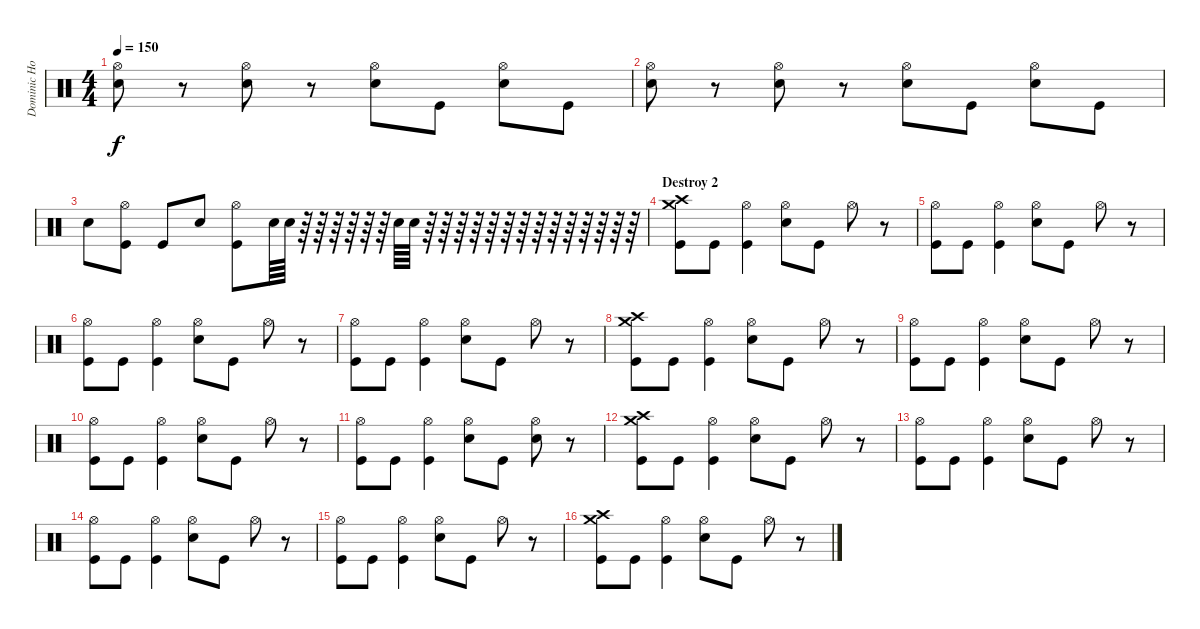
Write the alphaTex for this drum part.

\track ("Dominic Howard" "Dominic Ho") {instrument percussion}
\staff {score}
\articulation defaults
\ts (4 4)
\tempo 150
\clef neutral
\ks c
("Hi-Hat (open)" "Snare (hit) 2").8{dy f} r.8 ("Hi-Hat (open)" "Snare (hit) 2").8 r.8 ("Hi-Hat (open)" "Snare (hit) 2").8 "Kick (hit)".8 ("Hi-Hat (open)" "Snare (hit) 2").8 "Kick (hit)".8 |
("Hi-Hat (open)" "Snare (hit) 2").8 r.8 ("Hi-Hat (open)" "Snare (hit) 2").8 r.8 ("Hi-Hat (open)" "Snare (hit) 2").8 "Kick (hit)".8 ("Hi-Hat (open)" "Snare (hit) 2").8 "Kick (hit)".8 |
"Snare (hit) 2".8 ("Hi-Hat (open)" "Kick (hit)").8 "Kick (hit)".8 "Snare (hit) 2".8 ("Hi-Hat (open)" "Kick (hit)").8 "Snare (hit) 2".64 "Snare (hit) 2".64 r.64 r.64 r.64 r.64 r.64 r.64 "Snare (hit) 2".64 "Snare (hit) 2".64 r.64 r.64 r.64 r.64 r.64 r.64 r.64 r.64 r.64 r.64 r.64 r.64 r.64 r.64 |
\section ("" "Destroy 2")
("Crash high (hit)" "Crash medium (hit)" "Kick (hit)").8 "Kick (hit)".8 ("Hi-Hat (open)" "Kick (hit)").4 ("Hi-Hat (open)" "Snare (hit) 2").8 "Kick (hit)".8 "Hi-Hat (open)".8 r.8 |
("Hi-Hat (open)" "Kick (hit)").8 "Kick (hit)".8 ("Hi-Hat (open)" "Kick (hit)").4 ("Hi-Hat (open)" "Snare (hit) 2").8 "Kick (hit)".8 "Hi-Hat (open)".8 r.8 |
("Hi-Hat (open)" "Kick (hit)").8 "Kick (hit)".8 ("Hi-Hat (open)" "Kick (hit)").4 ("Hi-Hat (open)" "Snare (hit) 2").8 "Kick (hit)".8 "Hi-Hat (open)".8 r.8 |
("Hi-Hat (open)" "Kick (hit)").8 "Kick (hit)".8 ("Hi-Hat (open)" "Kick (hit)").4 ("Hi-Hat (open)" "Snare (hit) 2").8 "Kick (hit)".8 "Hi-Hat (open)".8 r.8 |
("Crash high (hit)" "Crash medium (hit)" "Kick (hit)").8 "Kick (hit)".8 ("Hi-Hat (open)" "Kick (hit)").4 ("Hi-Hat (open)" "Snare (hit) 2").8 "Kick (hit)".8 "Hi-Hat (open)".8 r.8 |
("Hi-Hat (open)" "Kick (hit)").8 "Kick (hit)".8 ("Hi-Hat (open)" "Kick (hit)").4 ("Hi-Hat (open)" "Snare (hit) 2").8 "Kick (hit)".8 "Hi-Hat (open)".8 r.8 |
("Hi-Hat (open)" "Kick (hit)").8 "Kick (hit)".8 ("Hi-Hat (open)" "Kick (hit)").4 ("Hi-Hat (open)" "Snare (hit) 2").8 "Kick (hit)".8 "Hi-Hat (open)".8 r.8 |
("Hi-Hat (open)" "Kick (hit)").8 "Kick (hit)".8 ("Hi-Hat (open)" "Kick (hit)").4 ("Hi-Hat (open)" "Snare (hit) 2").8 "Kick (hit)".8 ("Hi-Hat (open)" "Snare (hit) 2").8 r.8 |
("Crash high (hit)" "Crash medium (hit)" "Kick (hit)").8 "Kick (hit)".8 ("Hi-Hat (open)" "Kick (hit)").4 ("Hi-Hat (open)" "Snare (hit) 2").8 "Kick (hit)".8 "Hi-Hat (open)".8 r.8 |
("Hi-Hat (open)" "Kick (hit)").8 "Kick (hit)".8 ("Hi-Hat (open)" "Kick (hit)").4 ("Hi-Hat (open)" "Snare (hit) 2").8 "Kick (hit)".8 "Hi-Hat (open)".8 r.8 |
("Hi-Hat (open)" "Kick (hit)").8 "Kick (hit)".8 ("Hi-Hat (open)" "Kick (hit)").4 ("Hi-Hat (open)" "Snare (hit) 2").8 "Kick (hit)".8 "Hi-Hat (open)".8 r.8 |
("Hi-Hat (open)" "Kick (hit)").8 "Kick (hit)".8 ("Hi-Hat (open)" "Kick (hit)").4 ("Hi-Hat (open)" "Snare (hit) 2").8 "Kick (hit)".8 "Hi-Hat (open)".8 r.8 |
("Crash high (hit)" "Crash medium (hit)" "Kick (hit)").8 "Kick (hit)".8 ("Hi-Hat (open)" "Kick (hit)").4 ("Hi-Hat (open)" "Snare (hit) 2").8 "Kick (hit)".8 "Hi-Hat (open)".8 r.8
